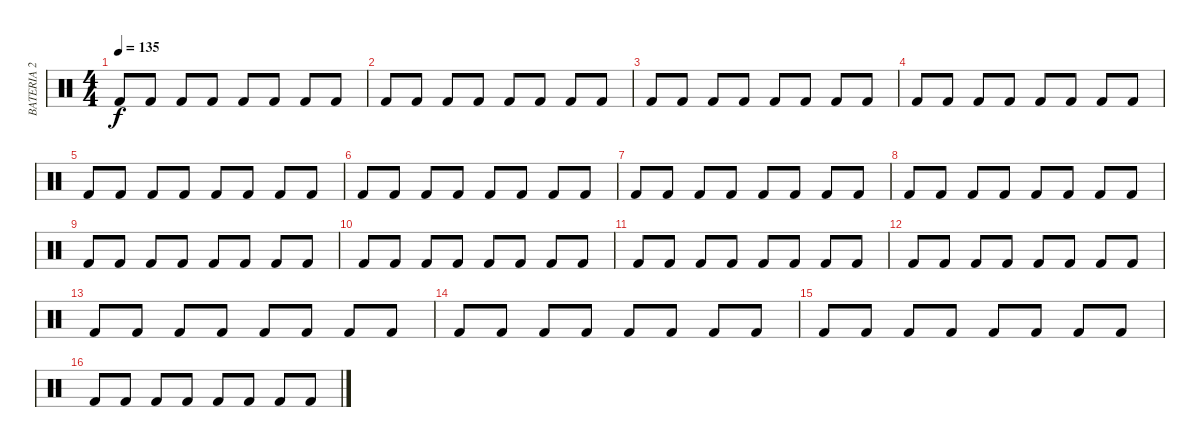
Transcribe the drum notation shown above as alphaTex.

\track ("BATERIA 2" "BATERIA 2") {instrument percussion}
\staff {score}
\articulation defaults
\ts (4 4)
\tempo 135
\clef neutral
\ks c "Kick (hit) 2".8{dy f} "Kick (hit) 2".8 "Kick (hit) 2".8 "Kick (hit) 2".8 "Kick (hit) 2".8 "Kick (hit) 2".8 "Kick (hit) 2".8 "Kick (hit) 2".8
|
"Kick (hit) 2".8 "Kick (hit) 2".8 "Kick (hit) 2".8 "Kick (hit) 2".8 "Kick (hit) 2".8 "Kick (hit) 2".8 "Kick (hit) 2".8 "Kick (hit) 2".8 |
"Kick (hit) 2".8 "Kick (hit) 2".8 "Kick (hit) 2".8 "Kick (hit) 2".8 "Kick (hit) 2".8 "Kick (hit) 2".8 "Kick (hit) 2".8 "Kick (hit) 2".8 |
"Kick (hit) 2".8 "Kick (hit) 2".8 "Kick (hit) 2".8 "Kick (hit) 2".8 "Kick (hit) 2".8 "Kick (hit) 2".8 "Kick (hit) 2".8 "Kick (hit) 2".8 |
"Kick (hit) 2".8 "Kick (hit) 2".8 "Kick (hit) 2".8 "Kick (hit) 2".8 "Kick (hit) 2".8 "Kick (hit) 2".8 "Kick (hit) 2".8 "Kick (hit) 2".8 |
"Kick (hit) 2".8 "Kick (hit) 2".8 "Kick (hit) 2".8 "Kick (hit) 2".8 "Kick (hit) 2".8 "Kick (hit) 2".8 "Kick (hit) 2".8 "Kick (hit) 2".8 |
"Kick (hit) 2".8 "Kick (hit) 2".8 "Kick (hit) 2".8 "Kick (hit) 2".8 "Kick (hit) 2".8 "Kick (hit) 2".8 "Kick (hit) 2".8 "Kick (hit) 2".8 |
"Kick (hit) 2".8 "Kick (hit) 2".8 "Kick (hit) 2".8 "Kick (hit) 2".8 "Kick (hit) 2".8 "Kick (hit) 2".8 "Kick (hit) 2".8 "Kick (hit) 2".8 |
"Kick (hit) 2".8 "Kick (hit) 2".8 "Kick (hit) 2".8 "Kick (hit) 2".8 "Kick (hit) 2".8 "Kick (hit) 2".8 "Kick (hit) 2".8 "Kick (hit) 2".8 |
"Kick (hit) 2".8 "Kick (hit) 2".8 "Kick (hit) 2".8 "Kick (hit) 2".8 "Kick (hit) 2".8 "Kick (hit) 2".8 "Kick (hit) 2".8 "Kick (hit) 2".8 |
"Kick (hit) 2".8 "Kick (hit) 2".8 "Kick (hit) 2".8 "Kick (hit) 2".8 "Kick (hit) 2".8 "Kick (hit) 2".8 "Kick (hit) 2".8 "Kick (hit) 2".8 |
"Kick (hit) 2".8 "Kick (hit) 2".8 "Kick (hit) 2".8 "Kick (hit) 2".8 "Kick (hit) 2".8 "Kick (hit) 2".8 "Kick (hit) 2".8 "Kick (hit) 2".8 |
"Kick (hit) 2".8 "Kick (hit) 2".8 "Kick (hit) 2".8 "Kick (hit) 2".8 "Kick (hit) 2".8 "Kick (hit) 2".8 "Kick (hit) 2".8 "Kick (hit) 2".8 |
"Kick (hit) 2".8 "Kick (hit) 2".8 "Kick (hit) 2".8 "Kick (hit) 2".8 "Kick (hit) 2".8 "Kick (hit) 2".8 "Kick (hit) 2".8 "Kick (hit) 2".8 |
"Kick (hit) 2".8 "Kick (hit) 2".8 "Kick (hit) 2".8 "Kick (hit) 2".8 "Kick (hit) 2".8 "Kick (hit) 2".8 "Kick (hit) 2".8 "Kick (hit) 2".8 |
"Kick (hit) 2".8 "Kick (hit) 2".8 "Kick (hit) 2".8 "Kick (hit) 2".8 "Kick (hit) 2".8 "Kick (hit) 2".8 "Kick (hit) 2".8 "Kick (hit) 2".8
